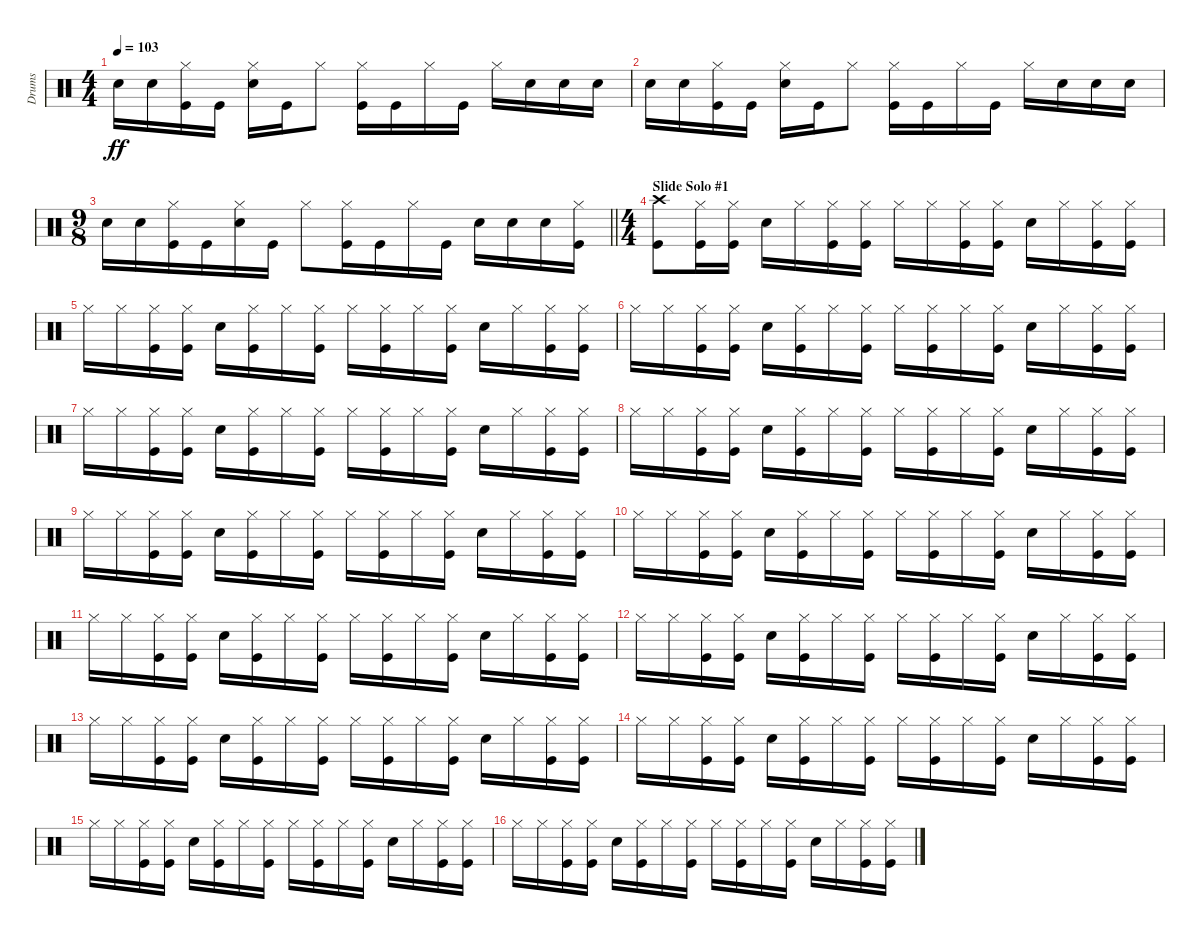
\track ("Drums" "Drums") {instrument percussion}
\staff {score}
\articulation defaults
\ts (4 4)
\tempo 103
\clef neutral
\ks c "Electric Snare (hit)".16{dy ff} "Electric Snare (hit)".16
("Hi-Hat (closed)" "Kick (hit)").16 "Kick (hit)".16 ("Hi-Hat (closed)" "Electric Snare (hit)").16 "Kick (hit)".16 "Hi-Hat (closed)".8 ("Hi-Hat (closed)" "Kick (hit)").16 "Kick (hit)".16 "Hi-Hat (closed)".16 "Kick (hit)".16 "Hi-Hat (closed)".16 "Electric Snare (hit)".16 "Electric Snare (hit)".16 "Electric Snare (hit)".16 |
"Electric Snare (hit)".16 "Electric Snare (hit)".16 ("Hi-Hat (closed)" "Kick (hit)").16 "Kick (hit)".16 ("Hi-Hat (closed)" "Electric Snare (hit)").16 "Kick (hit)".16 "Hi-Hat (closed)".8 ("Hi-Hat (closed)" "Kick (hit)").16 "Kick (hit)".16 "Hi-Hat (closed)".16 "Kick (hit)".16 "Hi-Hat (closed)".16 "Electric Snare (hit)".16 "Electric Snare (hit)".16 "Electric Snare (hit)".16 |
\ts (9 8)
\barLineRight lightlight "Electric Snare (hit)".16 "Electric Snare (hit)".16
("Hi-Hat (closed)" "Kick (hit)").16 "Kick (hit)".16 ("Hi-Hat (closed)" "Electric Snare (hit)").16 "Kick (hit)".16 "Hi-Hat (closed)".8 ("Hi-Hat (closed)" "Kick (hit)").16 "Kick (hit)".16 "Hi-Hat (closed)".16 "Kick (hit)".16 "Electric Snare (hit)".16 "Electric Snare (hit)".16 "Electric Snare (hit)".16 ("Hi-Hat (closed)" "Kick (hit)").16 |
\ts (4 4)
\section ("" "Slide Solo #1")
("Crash high (hit)" "Kick (hit)").8 ("Hi-Hat (closed)" "Kick (hit)").16 ("Hi-Hat (closed)" "Kick (hit)").16 "Electric Snare (hit)".16 "Hi-Hat (closed)".16 ("Hi-Hat (closed)" "Kick (hit)").16 ("Hi-Hat (closed)" "Kick (hit)").16 "Hi-Hat (closed)".16 "Hi-Hat (closed)".16 ("Hi-Hat (closed)" "Kick (hit)").16 ("Hi-Hat (closed)" "Kick (hit)").16 "Electric Snare (hit)".16 "Hi-Hat (closed)".16 ("Hi-Hat (closed)" "Kick (hit)").16 ("Hi-Hat (closed)" "Kick (hit)").16 |
"Hi-Hat (closed)".16 "Hi-Hat (closed)".16 ("Hi-Hat (closed)" "Kick (hit)").16 ("Hi-Hat (closed)" "Kick (hit)").16 "Electric Snare (hit)".16 ("Hi-Hat (closed)" "Kick (hit)").16 "Hi-Hat (closed)".16 ("Hi-Hat (closed)" "Kick (hit)").16 "Hi-Hat (closed)".16 ("Hi-Hat (closed)" "Kick (hit)").16 "Hi-Hat (closed)".16 ("Hi-Hat (closed)" "Kick (hit)").16 "Electric Snare (hit)".16 "Hi-Hat (closed)".16 ("Hi-Hat (closed)" "Kick (hit)").16 ("Hi-Hat (closed)" "Kick (hit)").16 |
"Hi-Hat (closed)".16 "Hi-Hat (closed)".16 ("Hi-Hat (closed)" "Kick (hit)").16 ("Hi-Hat (closed)" "Kick (hit)").16 "Electric Snare (hit)".16 ("Hi-Hat (closed)" "Kick (hit)").16 "Hi-Hat (closed)".16 ("Hi-Hat (closed)" "Kick (hit)").16 "Hi-Hat (closed)".16 ("Hi-Hat (closed)" "Kick (hit)").16 "Hi-Hat (closed)".16 ("Hi-Hat (closed)" "Kick (hit)").16 "Electric Snare (hit)".16 "Hi-Hat (closed)".16 ("Hi-Hat (closed)" "Kick (hit)").16 ("Hi-Hat (closed)" "Kick (hit)").16 |
"Hi-Hat (closed)".16 "Hi-Hat (closed)".16 ("Hi-Hat (closed)" "Kick (hit)").16 ("Hi-Hat (closed)" "Kick (hit)").16 "Electric Snare (hit)".16 ("Hi-Hat (closed)" "Kick (hit)").16 "Hi-Hat (closed)".16 ("Hi-Hat (closed)" "Kick (hit)").16 "Hi-Hat (closed)".16 ("Hi-Hat (closed)" "Kick (hit)").16 "Hi-Hat (closed)".16 ("Hi-Hat (closed)" "Kick (hit)").16 "Electric Snare (hit)".16 "Hi-Hat (closed)".16 ("Hi-Hat (closed)" "Kick (hit)").16 ("Hi-Hat (closed)" "Kick (hit)").16 |
"Hi-Hat (closed)".16 "Hi-Hat (closed)".16 ("Hi-Hat (closed)" "Kick (hit)").16 ("Hi-Hat (closed)" "Kick (hit)").16 "Electric Snare (hit)".16 ("Hi-Hat (closed)" "Kick (hit)").16 "Hi-Hat (closed)".16 ("Hi-Hat (closed)" "Kick (hit)").16 "Hi-Hat (closed)".16 ("Hi-Hat (closed)" "Kick (hit)").16 "Hi-Hat (closed)".16 ("Hi-Hat (closed)" "Kick (hit)").16 "Electric Snare (hit)".16 "Hi-Hat (closed)".16 ("Hi-Hat (closed)" "Kick (hit)").16 ("Hi-Hat (closed)" "Kick (hit)").16 |
"Hi-Hat (closed)".16 "Hi-Hat (closed)".16 ("Hi-Hat (closed)" "Kick (hit)").16 ("Hi-Hat (closed)" "Kick (hit)").16 "Electric Snare (hit)".16 ("Hi-Hat (closed)" "Kick (hit)").16 "Hi-Hat (closed)".16 ("Hi-Hat (closed)" "Kick (hit)").16 "Hi-Hat (closed)".16 ("Hi-Hat (closed)" "Kick (hit)").16 "Hi-Hat (closed)".16 ("Hi-Hat (closed)" "Kick (hit)").16 "Electric Snare (hit)".16 "Hi-Hat (closed)".16 ("Hi-Hat (closed)" "Kick (hit)").16 ("Hi-Hat (closed)" "Kick (hit)").16 |
"Hi-Hat (closed)".16 "Hi-Hat (closed)".16 ("Hi-Hat (closed)" "Kick (hit)").16 ("Hi-Hat (closed)" "Kick (hit)").16 "Electric Snare (hit)".16 ("Hi-Hat (closed)" "Kick (hit)").16 "Hi-Hat (closed)".16 ("Hi-Hat (closed)" "Kick (hit)").16 "Hi-Hat (closed)".16 ("Hi-Hat (closed)" "Kick (hit)").16 "Hi-Hat (closed)".16 ("Hi-Hat (closed)" "Kick (hit)").16 "Electric Snare (hit)".16 "Hi-Hat (closed)".16 ("Hi-Hat (closed)" "Kick (hit)").16 ("Hi-Hat (closed)" "Kick (hit)").16 |
"Hi-Hat (closed)".16 "Hi-Hat (closed)".16 ("Hi-Hat (closed)" "Kick (hit)").16 ("Hi-Hat (closed)" "Kick (hit)").16 "Electric Snare (hit)".16 ("Hi-Hat (closed)" "Kick (hit)").16 "Hi-Hat (closed)".16 ("Hi-Hat (closed)" "Kick (hit)").16 "Hi-Hat (closed)".16 ("Hi-Hat (closed)" "Kick (hit)").16 "Hi-Hat (closed)".16 ("Hi-Hat (closed)" "Kick (hit)").16 "Electric Snare (hit)".16 "Hi-Hat (closed)".16 ("Hi-Hat (closed)" "Kick (hit)").16 ("Hi-Hat (closed)" "Kick (hit)").16 |
"Hi-Hat (closed)".16 "Hi-Hat (closed)".16 ("Hi-Hat (closed)" "Kick (hit)").16 ("Hi-Hat (closed)" "Kick (hit)").16 "Electric Snare (hit)".16 ("Hi-Hat (closed)" "Kick (hit)").16 "Hi-Hat (closed)".16 ("Hi-Hat (closed)" "Kick (hit)").16 "Hi-Hat (closed)".16 ("Hi-Hat (closed)" "Kick (hit)").16 "Hi-Hat (closed)".16 ("Hi-Hat (closed)" "Kick (hit)").16 "Electric Snare (hit)".16 "Hi-Hat (closed)".16 ("Hi-Hat (closed)" "Kick (hit)").16 ("Hi-Hat (closed)" "Kick (hit)").16 |
"Hi-Hat (closed)".16 "Hi-Hat (closed)".16 ("Hi-Hat (closed)" "Kick (hit)").16 ("Hi-Hat (closed)" "Kick (hit)").16 "Electric Snare (hit)".16 ("Hi-Hat (closed)" "Kick (hit)").16 "Hi-Hat (closed)".16 ("Hi-Hat (closed)" "Kick (hit)").16 "Hi-Hat (closed)".16 ("Hi-Hat (closed)" "Kick (hit)").16 "Hi-Hat (closed)".16 ("Hi-Hat (closed)" "Kick (hit)").16 "Electric Snare (hit)".16 "Hi-Hat (closed)".16 ("Hi-Hat (closed)" "Kick (hit)").16 ("Hi-Hat (closed)" "Kick (hit)").16 |
"Hi-Hat (closed)".16 "Hi-Hat (closed)".16 ("Hi-Hat (closed)" "Kick (hit)").16 ("Hi-Hat (closed)" "Kick (hit)").16 "Electric Snare (hit)".16 ("Hi-Hat (closed)" "Kick (hit)").16 "Hi-Hat (closed)".16 ("Hi-Hat (closed)" "Kick (hit)").16 "Hi-Hat (closed)".16 ("Hi-Hat (closed)" "Kick (hit)").16 "Hi-Hat (closed)".16 ("Hi-Hat (closed)" "Kick (hit)").16 "Electric Snare (hit)".16 "Hi-Hat (closed)".16 ("Hi-Hat (closed)" "Kick (hit)").16 ("Hi-Hat (closed)" "Kick (hit)").16 |
"Hi-Hat (closed)".16 "Hi-Hat (closed)".16 ("Hi-Hat (closed)" "Kick (hit)").16 ("Hi-Hat (closed)" "Kick (hit)").16 "Electric Snare (hit)".16 ("Hi-Hat (closed)" "Kick (hit)").16 "Hi-Hat (closed)".16 ("Hi-Hat (closed)" "Kick (hit)").16 "Hi-Hat (closed)".16 ("Hi-Hat (closed)" "Kick (hit)").16 "Hi-Hat (closed)".16 ("Hi-Hat (closed)" "Kick (hit)").16 "Electric Snare (hit)".16 "Hi-Hat (closed)".16 ("Hi-Hat (closed)" "Kick (hit)").16 ("Hi-Hat (closed)" "Kick (hit)").16 |
"Hi-Hat (closed)".16 "Hi-Hat (closed)".16 ("Hi-Hat (closed)" "Kick (hit)").16 ("Hi-Hat (closed)" "Kick (hit)").16 "Electric Snare (hit)".16 ("Hi-Hat (closed)" "Kick (hit)").16 "Hi-Hat (closed)".16 ("Hi-Hat (closed)" "Kick (hit)").16 "Hi-Hat (closed)".16 ("Hi-Hat (closed)" "Kick (hit)").16 "Hi-Hat (closed)".16 ("Hi-Hat (closed)" "Kick (hit)").16 "Electric Snare (hit)".16 "Hi-Hat (closed)".16 ("Hi-Hat (closed)" "Kick (hit)").16 ("Hi-Hat (closed)" "Kick (hit)").16
